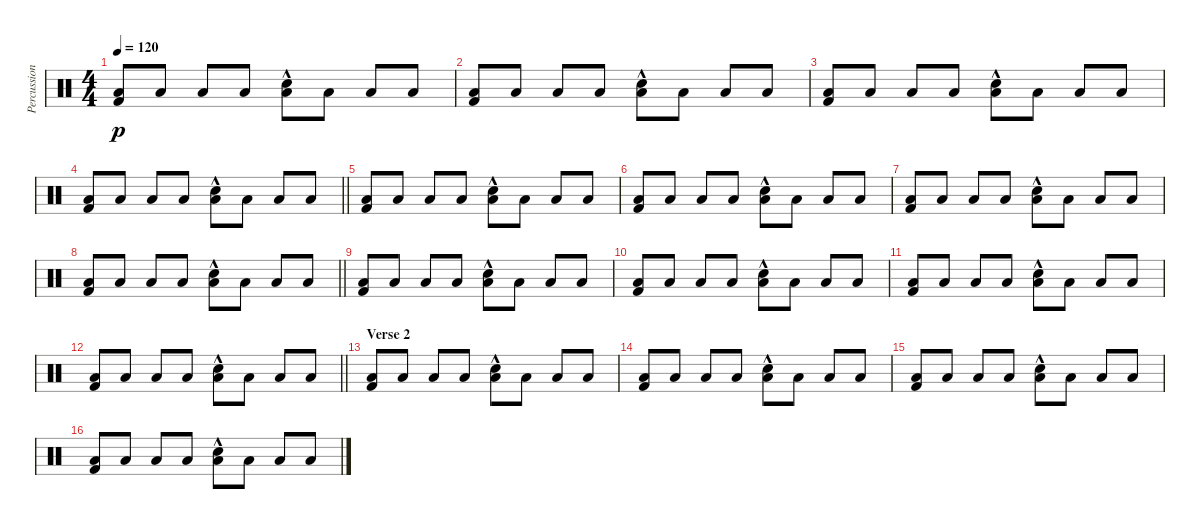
\track ("Percussion" "Percussion") {instrument percussion}
\staff {score}
\articulation defaults
\ts (4 4)
\tempo 120
\clef neutral
\ks c
("Kick (hit) 2" "Low Floor Tom (hit)").8{dy p} "Low Floor Tom (hit)".8 "Low Floor Tom (hit)".8 "Low Floor Tom (hit)".8 ("Snare (hit) 2"{hac} "Low Floor Tom (hit)").8 "Low Floor Tom (hit)".8 "Low Floor Tom (hit)".8 "Low Floor Tom (hit)".8 |
("Kick (hit) 2" "Low Floor Tom (hit)").8 "Low Floor Tom (hit)".8 "Low Floor Tom (hit)".8 "Low Floor Tom (hit)".8 ("Snare (hit) 2"{hac} "Low Floor Tom (hit)").8 "Low Floor Tom (hit)".8 "Low Floor Tom (hit)".8 "Low Floor Tom (hit)".8 |
("Kick (hit) 2" "Low Floor Tom (hit)").8 "Low Floor Tom (hit)".8 "Low Floor Tom (hit)".8 "Low Floor Tom (hit)".8 ("Snare (hit) 2"{hac} "Low Floor Tom (hit)").8 "Low Floor Tom (hit)".8 "Low Floor Tom (hit)".8 "Low Floor Tom (hit)".8 |
\barLineRight lightlight
("Kick (hit) 2" "Low Floor Tom (hit)").8 "Low Floor Tom (hit)".8 "Low Floor Tom (hit)".8 "Low Floor Tom (hit)".8 ("Snare (hit) 2"{hac} "Low Floor Tom (hit)").8 "Low Floor Tom (hit)".8 "Low Floor Tom (hit)".8 "Low Floor Tom (hit)".8 |
("Kick (hit) 2" "Low Floor Tom (hit)").8 "Low Floor Tom (hit)".8 "Low Floor Tom (hit)".8 "Low Floor Tom (hit)".8 ("Snare (hit) 2"{hac} "Low Floor Tom (hit)").8 "Low Floor Tom (hit)".8 "Low Floor Tom (hit)".8 "Low Floor Tom (hit)".8 |
("Kick (hit) 2" "Low Floor Tom (hit)").8 "Low Floor Tom (hit)".8 "Low Floor Tom (hit)".8 "Low Floor Tom (hit)".8 ("Snare (hit) 2"{hac} "Low Floor Tom (hit)").8 "Low Floor Tom (hit)".8 "Low Floor Tom (hit)".8 "Low Floor Tom (hit)".8 |
("Kick (hit) 2" "Low Floor Tom (hit)").8 "Low Floor Tom (hit)".8 "Low Floor Tom (hit)".8 "Low Floor Tom (hit)".8 ("Snare (hit) 2"{hac} "Low Floor Tom (hit)").8 "Low Floor Tom (hit)".8 "Low Floor Tom (hit)".8 "Low Floor Tom (hit)".8 |
\barLineRight lightlight
("Kick (hit) 2" "Low Floor Tom (hit)").8 "Low Floor Tom (hit)".8 "Low Floor Tom (hit)".8 "Low Floor Tom (hit)".8 ("Snare (hit) 2"{hac} "Low Floor Tom (hit)").8 "Low Floor Tom (hit)".8 "Low Floor Tom (hit)".8 "Low Floor Tom (hit)".8 |
("Kick (hit) 2" "Low Floor Tom (hit)").8 "Low Floor Tom (hit)".8 "Low Floor Tom (hit)".8 "Low Floor Tom (hit)".8 ("Snare (hit) 2"{hac} "Low Floor Tom (hit)").8 "Low Floor Tom (hit)".8 "Low Floor Tom (hit)".8 "Low Floor Tom (hit)".8 |
("Kick (hit) 2" "Low Floor Tom (hit)").8 "Low Floor Tom (hit)".8 "Low Floor Tom (hit)".8 "Low Floor Tom (hit)".8 ("Snare (hit) 2"{hac} "Low Floor Tom (hit)").8 "Low Floor Tom (hit)".8 "Low Floor Tom (hit)".8 "Low Floor Tom (hit)".8 |
("Kick (hit) 2" "Low Floor Tom (hit)").8 "Low Floor Tom (hit)".8 "Low Floor Tom (hit)".8 "Low Floor Tom (hit)".8 ("Snare (hit) 2"{hac} "Low Floor Tom (hit)").8 "Low Floor Tom (hit)".8 "Low Floor Tom (hit)".8 "Low Floor Tom (hit)".8 |
\barLineRight lightlight
("Kick (hit) 2" "Low Floor Tom (hit)").8 "Low Floor Tom (hit)".8 "Low Floor Tom (hit)".8 "Low Floor Tom (hit)".8 ("Snare (hit) 2"{hac} "Low Floor Tom (hit)").8 "Low Floor Tom (hit)".8 "Low Floor Tom (hit)".8 "Low Floor Tom (hit)".8 |
\section ("" "Verse 2")
("Kick (hit) 2" "Low Floor Tom (hit)").8 "Low Floor Tom (hit)".8 "Low Floor Tom (hit)".8 "Low Floor Tom (hit)".8 ("Snare (hit) 2"{hac} "Low Floor Tom (hit)").8 "Low Floor Tom (hit)".8 "Low Floor Tom (hit)".8 "Low Floor Tom (hit)".8 |
("Kick (hit) 2" "Low Floor Tom (hit)").8 "Low Floor Tom (hit)".8 "Low Floor Tom (hit)".8 "Low Floor Tom (hit)".8 ("Snare (hit) 2"{hac} "Low Floor Tom (hit)").8 "Low Floor Tom (hit)".8 "Low Floor Tom (hit)".8 "Low Floor Tom (hit)".8 |
("Kick (hit) 2" "Low Floor Tom (hit)").8 "Low Floor Tom (hit)".8 "Low Floor Tom (hit)".8 "Low Floor Tom (hit)".8 ("Snare (hit) 2"{hac} "Low Floor Tom (hit)").8 "Low Floor Tom (hit)".8 "Low Floor Tom (hit)".8 "Low Floor Tom (hit)".8 |
("Kick (hit) 2" "Low Floor Tom (hit)").8 "Low Floor Tom (hit)".8 "Low Floor Tom (hit)".8 "Low Floor Tom (hit)".8 ("Snare (hit) 2"{hac} "Low Floor Tom (hit)").8 "Low Floor Tom (hit)".8 "Low Floor Tom (hit)".8 "Low Floor Tom (hit)".8
